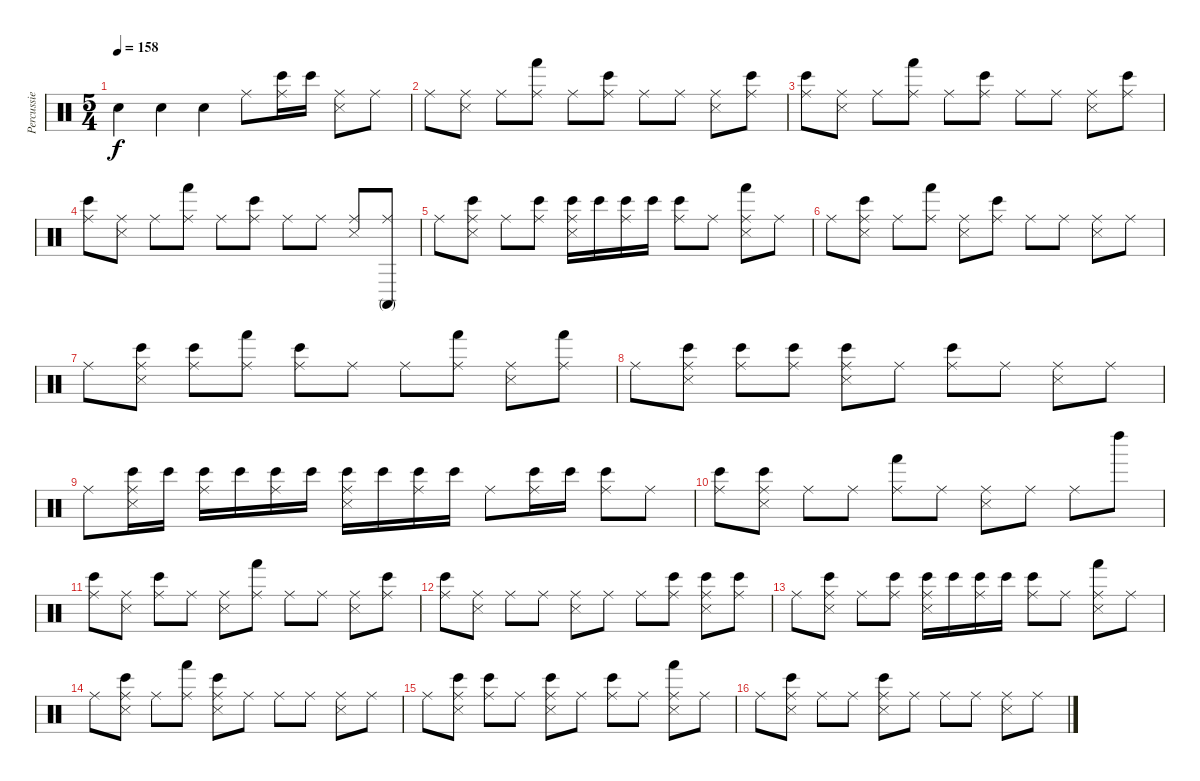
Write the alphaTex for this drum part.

\track ("Percussie" "Percussie") {instrument percussion}
\staff {score}
\articulation defaults
\ts (5 4)
\tempo 158
\clef neutral
\ks c "Metronome (bell)".4{dy f} "Metronome (bell)".4 "Metronome (bell)".4 "Ride (middle)".8
("Bongo High (hit)" "Ride (middle)").16 "Bongo High (hit)".16 ("Snare (side stick) 3" "Ride (middle)").8 "Ride (middle)".8 |
"Ride (middle)".8 ("Ride (middle)" "Snare (side stick) 3").8 "Ride (middle)".8 ("Ride (middle)" "Hand (hit)").8 "Ride (middle)".8 ("Ride (middle)" "Bongo High (hit)").8 "Ride (middle)".8 "Ride (middle)".8 ("Ride (middle)" "Snare (side stick) 3").8 ("Ride (middle)" "Bongo High (hit)").8 |
("Ride (middle)" "Bongo High (hit)").8 ("Ride (middle)" "Snare (side stick) 3").8 "Ride (middle)".8 ("Ride (middle)" "Hand (hit)").8 "Ride (middle)".8 ("Ride (middle)" "Bongo High (hit)").8 "Ride (middle)".8 "Ride (middle)".8 ("Ride (middle)" "Snare (side stick) 3").8 ("Ride (middle)" "Bongo High (hit)").8 |
("Ride (middle)" "Bongo High (hit)").8 ("Ride (middle)" "Snare (side stick) 3").8 "Ride (middle)".8 ("Ride (middle)" "Hand (hit)").8 "Ride (middle)".8 ("Ride (middle)" "Bongo High (hit)").8 "Ride (middle)".8 "Ride (middle)".8 ("Ride (middle)" "Snare (side stick) 3").8 ("Ride (middle)" "Conga high (mute)").8 |
"Ride (middle)".8 ("Ride (middle)" "Snare (side stick) 3" "Bongo High (hit)").8 "Ride (middle)".8 ("Ride (middle)" "Bongo High (hit)").8 ("Ride (middle)" "Snare (side stick) 3" "Bongo High (hit)").16 "Bongo High (hit)".16 ("Ride (middle)" "Bongo High (hit)").16 "Bongo High (hit)".16 ("Ride (middle)" "Bongo High (hit)").8 "Ride (middle)".8 ("Ride (middle)" "Snare (side stick) 3" "Hand (hit)").8 "Ride (middle)".8 |
"Ride (middle)".8 ("Ride (middle)" "Bongo High (hit)" "Snare (side stick) 3").8 "Ride (middle)".8 ("Ride (middle)" "Hand (hit)").8 ("Ride (middle)" "Snare (side stick) 3").8 ("Ride (middle)" "Bongo High (hit)").8 "Ride (middle)".8 "Ride (middle)".8 ("Ride (middle)" "Snare (side stick) 3").8 "Ride (middle)".8 |
"Ride (middle)".8 ("Ride (middle)" "Bongo High (hit)" "Snare (side stick) 3").8 ("Ride (middle)" "Bongo High (hit)").8 ("Ride (middle)" "Hand (hit)").8 ("Ride (middle)" "Bongo High (hit)").8 "Ride (middle)".8 "Ride (middle)".8 ("Ride (middle)" "Hand (hit)").8 ("Ride (middle)" "Snare (side stick) 3").8 ("Ride (middle)" "Hand (hit)").8 |
"Ride (middle)".8 ("Ride (middle)" "Snare (side stick) 3" "Bongo High (hit)").8 ("Ride (middle)" "Bongo High (hit)").8 ("Ride (middle)" "Bongo High (hit)").8 ("Ride (middle)" "Bongo High (hit)" "Snare (side stick) 3").8 "Ride (middle)".8 ("Ride (middle)" "Bongo High (hit)").8 "Ride (middle)".8 ("Ride (middle)" "Snare (side stick) 3").8 "Ride (middle)".8 |
"Ride (middle)".8 ("Ride (middle)" "Snare (side stick) 3" "Bongo High (hit)").16 "Bongo High (hit)".16 ("Ride (middle)" "Bongo High (hit)").16 "Bongo High (hit)".16 ("Ride (middle)" "Bongo High (hit)").16 "Bongo High (hit)".16 ("Ride (middle)" "Snare (side stick) 3" "Bongo High (hit)").16 "Bongo High (hit)".16 ("Ride (middle)" "Bongo High (hit)").16 "Bongo High (hit)".16 "Ride (middle)".8 ("Bongo High (hit)" "Ride (middle)").16 "Bongo High (hit)".16 ("Bongo High (hit)" "Ride (middle)").8 "Ride (middle)".8 |
("Bongo High (hit)" "Ride (middle)").8 ("Bongo High (hit)" "Snare (side stick) 3" "Ride (middle)").8 "Ride (middle)".8 "Ride (middle)".8 ("Hand (hit)" "Ride (middle)").8 "Ride (middle)".8 ("Snare (side stick) 3" "Ride (middle)").8 "Ride (middle)".8 "Ride (middle)".8 "Left Maraca (hit)".8 |
("Bongo High (hit)" "Ride (middle)").8 ("Snare (side stick) 3" "Ride (middle)").8 ("Bongo High (hit)" "Ride (middle)").8 "Ride (middle)".8 ("Snare (side stick) 3" "Ride (middle)").8 ("Hand (hit)" "Ride (middle)").8 "Ride (middle)".8 "Ride (middle)".8 ("Snare (side stick) 3" "Ride (middle)").8 ("Bongo High (hit)" "Ride (middle)").8 |
("Bongo High (hit)" "Ride (middle)").8 ("Snare (side stick) 3" "Ride (middle)").8 "Ride (middle)".8 "Ride (middle)".8 ("Snare (side stick) 3" "Ride (middle)").8 "Ride (middle)".8 "Ride (middle)".8 ("Bongo High (hit)" "Ride (middle)").8 ("Bongo High (hit)" "Snare (side stick) 3" "Ride (middle)").8 ("Bongo High (hit)" "Ride (middle)").8 |
"Ride (middle)".8 ("Ride (middle)" "Snare (side stick) 3" "Bongo High (hit)").8 "Ride (middle)".8 ("Ride (middle)" "Bongo High (hit)").8 ("Ride (middle)" "Snare (side stick) 3" "Bongo High (hit)").16 "Bongo High (hit)".16 ("Ride (middle)" "Bongo High (hit)").16 "Bongo High (hit)".16 ("Ride (middle)" "Bongo High (hit)").8 "Ride (middle)".8 ("Ride (middle)" "Snare (side stick) 3" "Hand (hit)").8 "Ride (middle)".8 |
"Ride (middle)".8 ("Bongo High (hit)" "Snare (side stick) 3" "Ride (middle)").8 "Ride (middle)".8 ("Hand (hit)" "Ride (middle)").8 ("Bongo High (hit)" "Snare (side stick) 3" "Ride (middle)").8 "Ride (middle)".8 "Ride (middle)".8 "Ride (middle)".8 ("Snare (side stick) 3" "Ride (middle)").8 "Ride (middle)".8 |
"Ride (middle)".8 ("Bongo High (hit)" "Snare (side stick) 3" "Ride (middle)").8 ("Bongo High (hit)" "Ride (middle)").8 "Ride (middle)".8 ("Bongo High (hit)" "Snare (side stick) 3" "Ride (middle)").8 "Ride (middle)".8 ("Bongo High (hit)" "Ride (middle)").8 "Ride (middle)".8 ("Hand (hit)" "Snare (side stick) 3" "Ride (middle)").8 "Ride (middle)".8 |
"Ride (middle)".8 ("Bongo High (hit)" "Snare (side stick) 3" "Ride (middle)").8 "Ride (middle)".8 "Ride (middle)".8 ("Bongo High (hit)" "Snare (side stick) 3" "Ride (middle)").8 "Ride (middle)".8 "Ride (middle)".8 "Ride (middle)".8 ("Snare (side stick) 3" "Ride (middle)").8 "Ride (middle)".8
